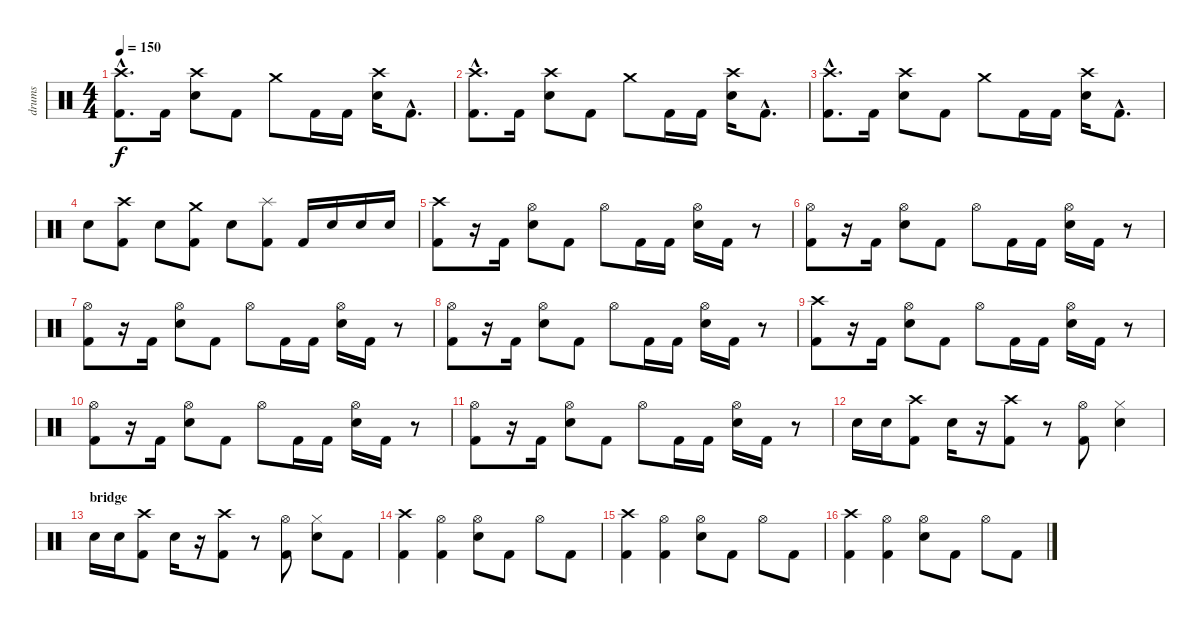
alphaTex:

\track ("drums" "drums") {instrument percussion}
\staff {score}
\articulation defaults
\ts (4 4)
\tempo 150
\clef neutral
\ks c
("Crash high (hit)"{hac} "Kick (hit) 2"{hac}).8{d dy f} "Kick (hit) 2".16 ("Crash high (hit)" "Electric Snare (hit)").8 "Kick (hit) 2".8 "Crash medium (hit)".8 "Kick (hit) 2".16 "Kick (hit) 2".16 ("Crash high (hit)" "Electric Snare (hit)").16 "Kick (hit) 2"{hac}.8{d} |
("Crash high (hit)"{hac} "Kick (hit) 2"{hac}).8{d} "Kick (hit) 2".16 ("Crash high (hit)" "Electric Snare (hit)").8 "Kick (hit) 2".8 "Crash medium (hit)".8 "Kick (hit) 2".16 "Kick (hit) 2".16 ("Crash high (hit)" "Electric Snare (hit)").16 "Kick (hit) 2"{hac}.8{d} |
("Crash high (hit)"{hac} "Kick (hit) 2"{hac}).8{d} "Kick (hit) 2".16 ("Crash high (hit)" "Electric Snare (hit)").8 "Kick (hit) 2".8 "Crash medium (hit)".8 "Kick (hit) 2".16 "Kick (hit) 2".16 ("Crash high (hit)" "Electric Snare (hit)").16 "Kick (hit) 2"{hac}.8{d} |
"Electric Snare (hit)".8 ("Crash high (hit)" "Kick (hit) 2").8 "Electric Snare (hit)".8 ("Crash medium (hit)" "Kick (hit) 2").8 "Electric Snare (hit)".8 ("Splash (hit)" "Kick (hit) 2").8 "Kick (hit) 2".16 "Electric Snare (hit)".16 "Electric Snare (hit)".16 "Electric Snare (hit)".16 |
("Crash high (hit)" "Kick (hit) 2").8 r.16 "Kick (hit) 2".16 ("Hi-Hat (open)" "Electric Snare (hit)").8 "Kick (hit) 2".8 "Hi-Hat (open)".8 "Kick (hit) 2".16 "Kick (hit) 2".16 ("Hi-Hat (open)" "Electric Snare (hit)").16 "Kick (hit) 2".16 r.8 |
("Hi-Hat (open)" "Kick (hit) 2").8 r.16 "Kick (hit) 2".16 ("Hi-Hat (open)" "Electric Snare (hit)").8 "Kick (hit) 2".8 "Hi-Hat (open)".8 "Kick (hit) 2".16 "Kick (hit) 2".16 ("Hi-Hat (open)" "Electric Snare (hit)").16 "Kick (hit) 2".16 r.8 |
("Hi-Hat (open)" "Kick (hit) 2").8 r.16 "Kick (hit) 2".16 ("Hi-Hat (open)" "Electric Snare (hit)").8 "Kick (hit) 2".8 "Hi-Hat (open)".8 "Kick (hit) 2".16 "Kick (hit) 2".16 ("Hi-Hat (open)" "Electric Snare (hit)").16 "Kick (hit) 2".16 r.8 |
("Hi-Hat (open)" "Kick (hit) 2").8 r.16 "Kick (hit) 2".16 ("Hi-Hat (open)" "Electric Snare (hit)").8 "Kick (hit) 2".8 "Hi-Hat (open)".8 "Kick (hit) 2".16 "Kick (hit) 2".16 ("Hi-Hat (open)" "Electric Snare (hit)").16 "Kick (hit) 2".16 r.8 |
("Crash high (hit)" "Kick (hit) 2").8 r.16 "Kick (hit) 2".16 ("Hi-Hat (open)" "Electric Snare (hit)").8 "Kick (hit) 2".8 "Hi-Hat (open)".8 "Kick (hit) 2".16 "Kick (hit) 2".16 ("Hi-Hat (open)" "Electric Snare (hit)").16 "Kick (hit) 2".16 r.8 |
("Hi-Hat (open)" "Kick (hit) 2").8 r.16 "Kick (hit) 2".16 ("Hi-Hat (open)" "Electric Snare (hit)").8 "Kick (hit) 2".8 "Hi-Hat (open)".8 "Kick (hit) 2".16 "Kick (hit) 2".16 ("Hi-Hat (open)" "Electric Snare (hit)").16 "Kick (hit) 2".16 r.8 |
("Hi-Hat (open)" "Kick (hit) 2").8 r.16 "Kick (hit) 2".16 ("Hi-Hat (open)" "Electric Snare (hit)").8 "Kick (hit) 2".8 "Hi-Hat (open)".8 "Kick (hit) 2".16 "Kick (hit) 2".16 ("Hi-Hat (open)" "Electric Snare (hit)").16 "Kick (hit) 2".16 r.8 |
"Electric Snare (hit)".16 "Electric Snare (hit)".16 ("Crash high (hit)" "Kick (hit) 2").8 "Electric Snare (hit)".16 r.16 ("Crash high (hit)" "Kick (hit) 2").8 r.8 ("Hi-Hat (open)" "Kick (hit) 2").8 ("Hi-Hat (closed)" "Electric Snare (hit)").4 |
\section ("" "bridge")
"Electric Snare (hit)".16 "Electric Snare (hit)".16 ("Crash high (hit)" "Kick (hit) 2").8 "Electric Snare (hit)".16 r.16 ("Crash high (hit)" "Kick (hit) 2").8 r.8 ("Hi-Hat (open)" "Kick (hit) 2").8 ("Hi-Hat (closed)" "Electric Snare (hit)").8 "Kick (hit) 2".8 |
("Crash high (hit)" "Kick (hit) 2").4 ("Hi-Hat (open)" "Kick (hit) 2").4 ("Hi-Hat (open)" "Electric Snare (hit)").8 "Kick (hit) 2".8 "Hi-Hat (open)".8 "Kick (hit) 2".8 |
("Crash high (hit)" "Kick (hit) 2").4 ("Hi-Hat (open)" "Kick (hit) 2").4 ("Hi-Hat (open)" "Electric Snare (hit)").8 "Kick (hit) 2".8 "Hi-Hat (open)".8 "Kick (hit) 2".8 |
("Crash high (hit)" "Kick (hit) 2").4 ("Hi-Hat (open)" "Kick (hit) 2").4 ("Hi-Hat (open)" "Electric Snare (hit)").8 "Kick (hit) 2".8 "Hi-Hat (open)".8 "Kick (hit) 2".8
